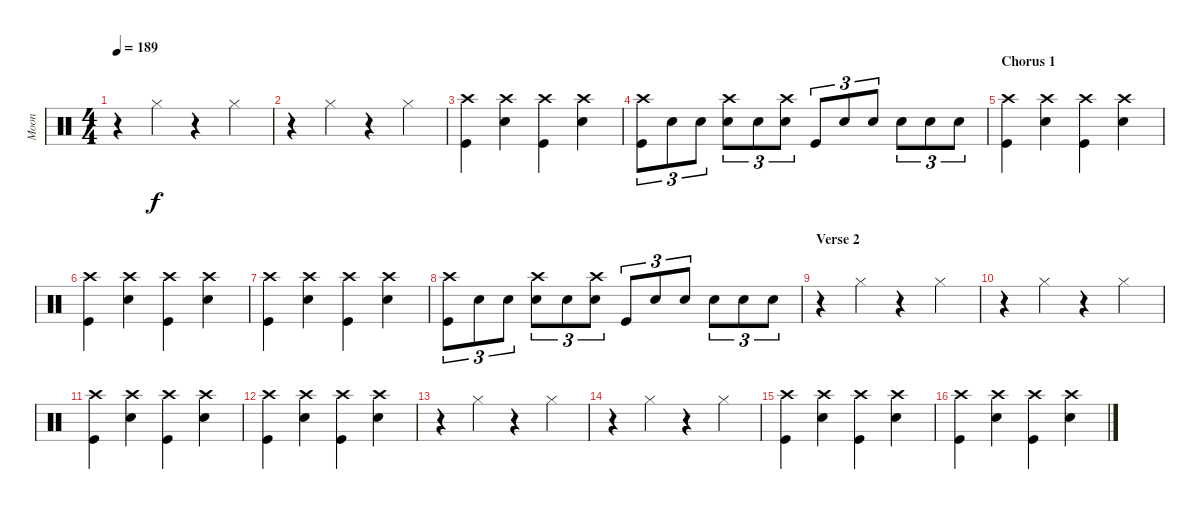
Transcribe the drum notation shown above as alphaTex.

\track ("Moon" "Moon") {instrument percussion}
\staff {score}
\articulation defaults
\ts (4 4)
\tempo 189
\clef neutral
\ks c
r.4{dy f} "Hi-Hat (closed)".4 r.4 "Hi-Hat (closed)".4 |
r.4 "Hi-Hat (closed)".4 r.4 "Hi-Hat (closed)".4 |
("Crash high (hit)" "Kick (hit)").4 ("Crash high (hit)" "Snare (hit) 2").4 ("Crash high (hit)" "Kick (hit)").4 ("Crash high (hit)" "Snare (hit) 2").4 |
("Crash high (hit)" "Kick (hit)").8{tu (3 2)} "Snare (hit) 2".8{tu (3 2)} "Snare (hit) 2".8{tu (3 2)} ("Crash high (hit)" "Snare (hit) 2").8{tu (3 2)} "Snare (hit) 2".8{tu (3 2)} ("Crash high (hit)" "Snare (hit) 2").8{tu (3 2)} "Kick (hit)".8{tu (3 2)} "Snare (hit) 2".8{tu (3 2)} "Snare (hit) 2".8{tu (3 2)} "Snare (hit) 2".8{tu (3 2)} "Snare (hit) 2".8{tu (3 2)} "Snare (hit) 2".8{tu (3 2)} |
\section ("" "Chorus 1")
("Crash high (hit)" "Kick (hit)").4 ("Crash high (hit)" "Snare (hit) 2").4 ("Crash high (hit)" "Kick (hit)").4 ("Crash high (hit)" "Snare (hit) 2").4 |
("Crash high (hit)" "Kick (hit)").4 ("Crash high (hit)" "Snare (hit) 2").4 ("Crash high (hit)" "Kick (hit)").4 ("Crash high (hit)" "Snare (hit) 2").4 |
("Crash high (hit)" "Kick (hit)").4 ("Crash high (hit)" "Snare (hit) 2").4 ("Crash high (hit)" "Kick (hit)").4 ("Crash high (hit)" "Snare (hit) 2").4 |
("Crash high (hit)" "Kick (hit)").8{tu (3 2)} "Snare (hit) 2".8{tu (3 2)} "Snare (hit) 2".8{tu (3 2)} ("Crash high (hit)" "Snare (hit) 2").8{tu (3 2)} "Snare (hit) 2".8{tu (3 2)} ("Crash high (hit)" "Snare (hit) 2").8{tu (3 2)} "Kick (hit)".8{tu (3 2)} "Snare (hit) 2".8{tu (3 2)} "Snare (hit) 2".8{tu (3 2)} "Snare (hit) 2".8{tu (3 2)} "Snare (hit) 2".8{tu (3 2)} "Snare (hit) 2".8{tu (3 2)} |
\section ("" "Verse 2")
r.4 "Hi-Hat (closed)".4 r.4 "Hi-Hat (closed)".4 |
r.4 "Hi-Hat (closed)".4 r.4 "Hi-Hat (closed)".4 |
("Crash high (hit)" "Kick (hit)").4 ("Crash high (hit)" "Snare (hit) 2").4 ("Crash high (hit)" "Kick (hit)").4 ("Crash high (hit)" "Snare (hit) 2").4 |
("Crash high (hit)" "Kick (hit)").4 ("Crash high (hit)" "Snare (hit) 2").4 ("Crash high (hit)" "Kick (hit)").4 ("Crash high (hit)" "Snare (hit) 2").4 |
r.4 "Hi-Hat (closed)".4 r.4 "Hi-Hat (closed)".4 |
r.4 "Hi-Hat (closed)".4 r.4 "Hi-Hat (closed)".4 |
("Crash high (hit)" "Kick (hit)").4 ("Crash high (hit)" "Snare (hit) 2").4 ("Crash high (hit)" "Kick (hit)").4 ("Crash high (hit)" "Snare (hit) 2").4 |
("Crash high (hit)" "Kick (hit)").4 ("Crash high (hit)" "Snare (hit) 2").4 ("Crash high (hit)" "Kick (hit)").4 ("Crash high (hit)" "Snare (hit) 2").4
